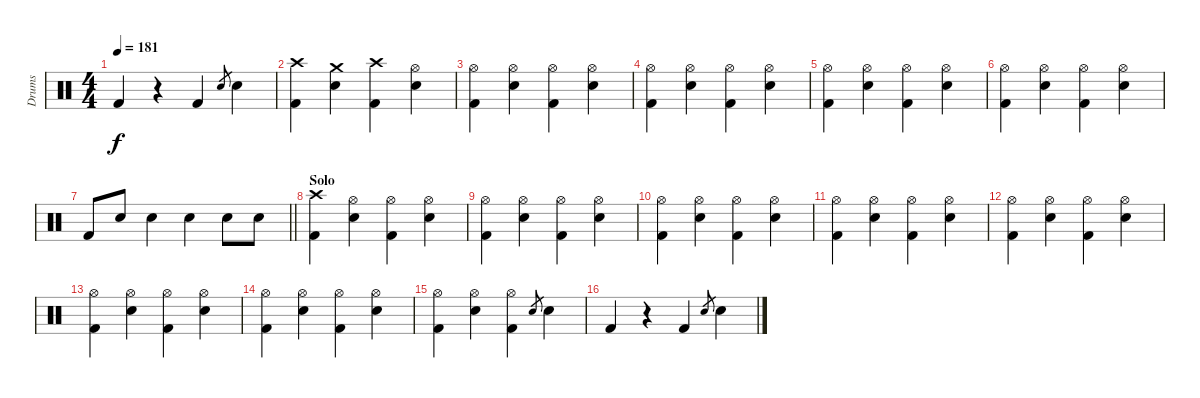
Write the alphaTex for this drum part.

\track ("Drums" "Drums") {instrument percussion}
\staff {score}
\articulation defaults
\ts (4 4)
\tempo 181
\clef neutral
\ks c "Kick (hit) 2".4{dy f}
r.4 "Kick (hit) 2".4 "Snare (hit) 2".8{gr} "Snare (hit) 2".4 |
("Crash high (hit)" "Kick (hit) 2").4 ("Crash medium (hit)" "Snare (hit) 2").4 ("Crash high (hit)" "Kick (hit) 2").4 ("Hi-Hat (open)" "Snare (hit) 2").4 |
("Hi-Hat (open)" "Kick (hit) 2").4 ("Hi-Hat (open)" "Snare (hit) 2").4 ("Hi-Hat (open)" "Kick (hit) 2").4 ("Hi-Hat (open)" "Snare (hit) 2").4 |
("Hi-Hat (open)" "Kick (hit) 2").4 ("Hi-Hat (open)" "Snare (hit) 2").4 ("Hi-Hat (open)" "Kick (hit) 2").4 ("Hi-Hat (open)" "Snare (hit) 2").4 |
("Hi-Hat (open)" "Kick (hit) 2").4 ("Hi-Hat (open)" "Snare (hit) 2").4 ("Hi-Hat (open)" "Kick (hit) 2").4 ("Hi-Hat (open)" "Snare (hit) 2").4 |
("Hi-Hat (open)" "Kick (hit) 2").4 ("Hi-Hat (open)" "Snare (hit) 2").4 ("Hi-Hat (open)" "Kick (hit) 2").4 ("Hi-Hat (open)" "Snare (hit) 2").4 |
\barLineRight lightlight "Kick (hit) 2".8 "Snare (hit) 2".8 "Snare (hit) 2".4 "Snare (hit) 2".4 "Snare (hit) 2".8 "Snare (hit) 2".8
|
\section ("" "Solo")
("Crash high (hit)" "Kick (hit) 2").4 ("Hi-Hat (open)" "Snare (hit) 2").4 ("Hi-Hat (open)" "Kick (hit) 2").4 ("Hi-Hat (open)" "Snare (hit) 2").4 |
("Hi-Hat (open)" "Kick (hit) 2").4 ("Hi-Hat (open)" "Snare (hit) 2").4 ("Hi-Hat (open)" "Kick (hit) 2").4 ("Hi-Hat (open)" "Snare (hit) 2").4 |
("Hi-Hat (open)" "Kick (hit) 2").4 ("Hi-Hat (open)" "Snare (hit) 2").4 ("Hi-Hat (open)" "Kick (hit) 2").4 ("Hi-Hat (open)" "Snare (hit) 2").4 |
("Hi-Hat (open)" "Kick (hit) 2").4 ("Hi-Hat (open)" "Snare (hit) 2").4 ("Hi-Hat (open)" "Kick (hit) 2").4 ("Hi-Hat (open)" "Snare (hit) 2").4 |
("Hi-Hat (open)" "Kick (hit) 2").4 ("Hi-Hat (open)" "Snare (hit) 2").4 ("Hi-Hat (open)" "Kick (hit) 2").4 ("Hi-Hat (open)" "Snare (hit) 2").4 |
("Hi-Hat (open)" "Kick (hit) 2").4 ("Hi-Hat (open)" "Snare (hit) 2").4 ("Hi-Hat (open)" "Kick (hit) 2").4 ("Hi-Hat (open)" "Snare (hit) 2").4 |
("Hi-Hat (open)" "Kick (hit) 2").4 ("Hi-Hat (open)" "Snare (hit) 2").4 ("Hi-Hat (open)" "Kick (hit) 2").4 ("Hi-Hat (open)" "Snare (hit) 2").4 |
("Hi-Hat (open)" "Kick (hit) 2").4 ("Hi-Hat (open)" "Snare (hit) 2").4 ("Hi-Hat (open)" "Kick (hit) 2").4 "Snare (hit) 2".8{gr} "Snare (hit) 2".4 |
"Kick (hit) 2".4 r.4 "Kick (hit) 2".4 "Snare (hit) 2".8{gr} "Snare (hit) 2".4
